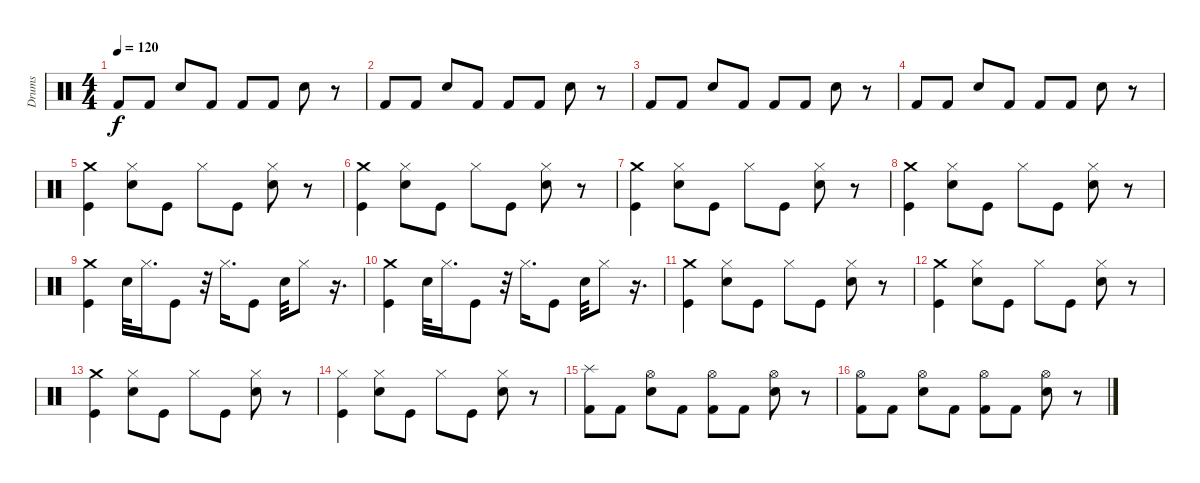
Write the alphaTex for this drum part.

\track ("Drums" "Drums") {instrument percussion}
\staff {score}
\articulation defaults
\ts (4 4)
\tempo 120
\clef neutral
\ks c "Kick (hit) 2".8{dy f} "Kick (hit) 2".8 "Electric Snare (hit)".8 "Kick (hit) 2".8 "Kick (hit) 2".8 "Kick (hit) 2".8 "Electric Snare (hit)".8
r.8 |
"Kick (hit) 2".8 "Kick (hit) 2".8 "Electric Snare (hit)".8 "Kick (hit) 2".8 "Kick (hit) 2".8 "Kick (hit) 2".8 "Electric Snare (hit)".8 r.8 |
"Kick (hit) 2".8 "Kick (hit) 2".8 "Electric Snare (hit)".8 "Kick (hit) 2".8 "Kick (hit) 2".8 "Kick (hit) 2".8 "Electric Snare (hit)".8 r.8 |
"Kick (hit) 2".8 "Kick (hit) 2".8 "Electric Snare (hit)".8 "Kick (hit) 2".8 "Kick (hit) 2".8 "Kick (hit) 2".8 "Electric Snare (hit)".8 r.8 |
("Crash medium (hit)" "Kick (hit)").4 ("Electric Snare (hit)" "Hi-Hat (closed)").8 "Kick (hit)".8 "Hi-Hat (closed)".8 "Kick (hit)".8 ("Electric Snare (hit)" "Hi-Hat (closed)").8 r.8 |
("Crash medium (hit)" "Kick (hit)").4 ("Electric Snare (hit)" "Hi-Hat (closed)").8 "Kick (hit)".8 "Hi-Hat (closed)".8 "Kick (hit)".8 ("Electric Snare (hit)" "Hi-Hat (closed)").8 r.8 |
("Crash medium (hit)" "Kick (hit)").4 ("Electric Snare (hit)" "Hi-Hat (closed)").8 "Kick (hit)".8 "Hi-Hat (closed)".8 "Kick (hit)".8 ("Electric Snare (hit)" "Hi-Hat (closed)").8 r.8 |
("Crash medium (hit)" "Kick (hit)").4 ("Electric Snare (hit)" "Hi-Hat (closed)").8 "Kick (hit)".8 "Hi-Hat (closed)".8 "Kick (hit)".8 ("Electric Snare (hit)" "Hi-Hat (closed)").8 r.8 |
("Crash medium (hit)" "Kick (hit)").4 "Electric Snare (hit)".32 "Hi-Hat (closed)".16{d} "Kick (hit)".8 r.32 "Hi-Hat (closed)".16{d} "Kick (hit)".8 "Electric Snare (hit)".32 "Hi-Hat (closed)".8 r.16{d} |
("Crash medium (hit)" "Kick (hit)").4 "Electric Snare (hit)".32 "Hi-Hat (closed)".16{d} "Kick (hit)".8 r.32 "Hi-Hat (closed)".16{d} "Kick (hit)".8 "Electric Snare (hit)".32 "Hi-Hat (closed)".8 r.16{d} |
("Crash medium (hit)" "Kick (hit)").4 ("Electric Snare (hit)" "Hi-Hat (closed)").8 "Kick (hit)".8 "Hi-Hat (closed)".8 "Kick (hit)".8 ("Electric Snare (hit)" "Hi-Hat (closed)").8 r.8 |
("Crash medium (hit)" "Kick (hit)").4 ("Electric Snare (hit)" "Hi-Hat (closed)").8 "Kick (hit)".8 "Hi-Hat (closed)".8 "Kick (hit)".8 ("Electric Snare (hit)" "Hi-Hat (closed)").8 r.8 |
("Crash medium (hit)" "Kick (hit)").4 ("Electric Snare (hit)" "Hi-Hat (closed)").8 "Kick (hit)".8 "Hi-Hat (closed)".8 "Kick (hit)".8 ("Electric Snare (hit)" "Hi-Hat (closed)").8 r.8 |
("Hi-Hat (closed)" "Kick (hit)").4 ("Electric Snare (hit)" "Hi-Hat (closed)").8 "Kick (hit)".8 "Hi-Hat (closed)".8 "Kick (hit)".8 ("Electric Snare (hit)" "Hi-Hat (closed)").8 r.8 |
("Splash (hit)" "Kick (hit) 2").8 "Kick (hit) 2".8 ("Hi-Hat (open)" "Electric Snare (hit)").8 "Kick (hit) 2".8 ("Hi-Hat (open)" "Kick (hit) 2").8 "Kick (hit) 2".8 ("Hi-Hat (open)" "Electric Snare (hit)").8 r.8 |
("Hi-Hat (open)" "Kick (hit) 2").8 "Kick (hit) 2".8 ("Hi-Hat (open)" "Electric Snare (hit)").8 "Kick (hit) 2".8 ("Hi-Hat (open)" "Kick (hit) 2").8 "Kick (hit) 2".8 ("Hi-Hat (open)" "Electric Snare (hit)").8 r.8
